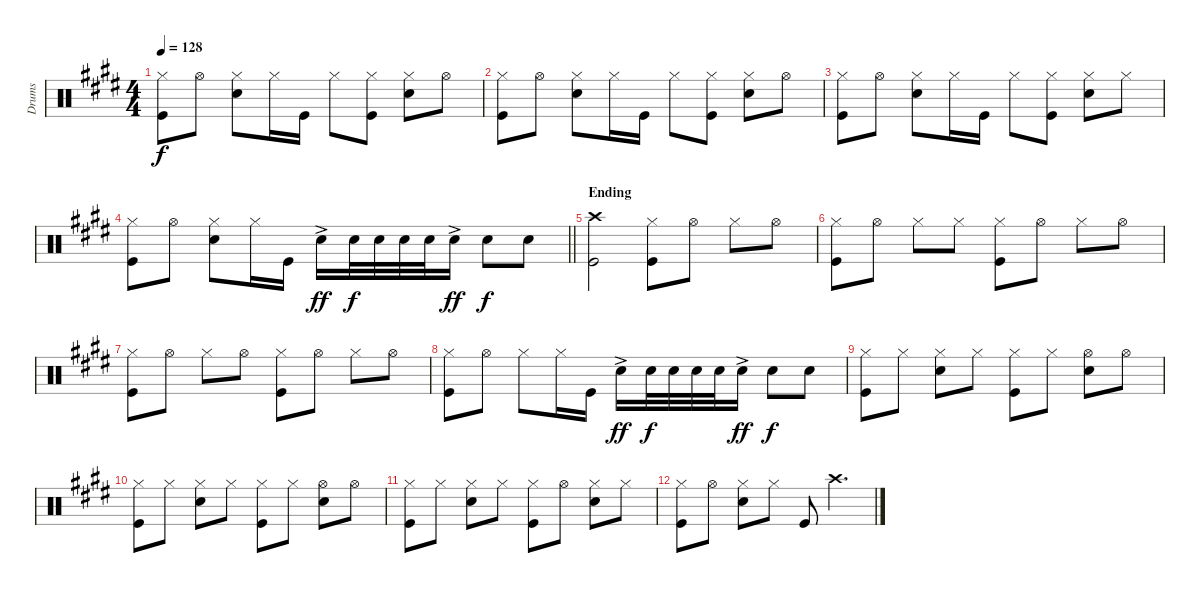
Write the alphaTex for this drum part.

\track ("Drums" "Drums") {instrument percussion}
\staff {score}
\articulation defaults
\ts (4 4)
\tempo 128
\clef neutral
\ks c#minor
("Hi-Hat (closed)" "Kick (hit)").8{dy f} "Hi-Hat (open)".8 ("Hi-Hat (closed)" "Snare (hit) 2").8 "Hi-Hat (closed)".16 "Kick (hit)".16 "Hi-Hat (closed)".8 ("Hi-Hat (closed)" "Kick (hit)").8 ("Hi-Hat (closed)" "Snare (hit) 2").8 "Hi-Hat (open)".8 |
("Hi-Hat (closed)" "Kick (hit)").8 "Hi-Hat (open)".8 ("Hi-Hat (closed)" "Snare (hit) 2").8 "Hi-Hat (closed)".16 "Kick (hit)".16 "Hi-Hat (closed)".8 ("Hi-Hat (closed)" "Kick (hit)").8 ("Hi-Hat (closed)" "Snare (hit) 2").8 "Hi-Hat (open)".8 |
("Kick (hit)" "Hi-Hat (closed)").8 "Hi-Hat (open)".8 ("Hi-Hat (closed)" "Snare (hit) 2").8 "Hi-Hat (closed)".16 "Kick (hit)".16 "Hi-Hat (closed)".8 ("Hi-Hat (closed)" "Kick (hit)").8 ("Hi-Hat (closed)" "Snare (hit) 2").8 "Hi-Hat (closed)".8 |
\barLineRight lightlight
("Hi-Hat (closed)" "Kick (hit)").8 "Hi-Hat (open)".8 ("Hi-Hat (closed)" "Snare (hit) 2").8 "Hi-Hat (closed)".16 "Kick (hit)".16 "Snare (hit) 2"{ac}.16{dy ff} "Snare (hit) 2".32{dy f} "Snare (hit) 2".32 "Snare (hit) 2".32 "Snare (hit) 2".32 "Snare (hit) 2"{ac}.16{dy ff} "Snare (hit) 2".8{dy f} "Snare (hit) 2".8 |
\section ("" "Ending")
("Crash high (hit)" "Kick (hit)").2 ("Kick (hit)" "Hi-Hat (closed)").8 "Hi-Hat (open)".8 "Hi-Hat (closed)".8 "Hi-Hat (open)".8 |
("Hi-Hat (closed)" "Kick (hit)").8 "Hi-Hat (open)".8 "Hi-Hat (closed)".8 "Hi-Hat (closed)".8 ("Hi-Hat (closed)" "Kick (hit)").8 "Hi-Hat (open)".8 "Hi-Hat (closed)".8 "Hi-Hat (open)".8 |
("Kick (hit)" "Hi-Hat (closed)").8 "Hi-Hat (open)".8 "Hi-Hat (closed)".8 "Hi-Hat (open)".8 ("Hi-Hat (closed)" "Kick (hit)").8 "Hi-Hat (open)".8 "Hi-Hat (closed)".8 "Hi-Hat (open)".8 |
("Hi-Hat (closed)" "Kick (hit)").8 "Hi-Hat (open)".8 "Hi-Hat (closed)".8 "Hi-Hat (closed)".16 "Kick (hit)".16 "Snare (hit) 2"{ac}.16{dy ff} "Snare (hit) 2".32{dy f} "Snare (hit) 2".32 "Snare (hit) 2".32 "Snare (hit) 2".32 "Snare (hit) 2"{ac}.16{dy ff} "Snare (hit) 2".8{dy f} "Snare (hit) 2".8 |
("Hi-Hat (closed)" "Kick (hit)").8 "Hi-Hat (closed)".8 ("Hi-Hat (closed)" "Snare (hit) 2").8 "Hi-Hat (closed)".8 ("Hi-Hat (closed)" "Kick (hit)").8 "Hi-Hat (closed)".8 ("Hi-Hat (open)" "Snare (hit) 2").8 "Hi-Hat (open)".8 |
("Hi-Hat (closed)" "Kick (hit)").8 "Hi-Hat (closed)".8 ("Hi-Hat (closed)" "Snare (hit) 2").8 "Hi-Hat (closed)".8 ("Hi-Hat (closed)" "Kick (hit)").8 "Hi-Hat (closed)".8 ("Hi-Hat (open)" "Snare (hit) 2").8 "Hi-Hat (open)".8 |
("Hi-Hat (closed)" "Kick (hit)").8 "Hi-Hat (closed)".8 ("Hi-Hat (closed)" "Snare (hit) 2").8 "Hi-Hat (closed)".8 ("Hi-Hat (closed)" "Kick (hit)").8 "Hi-Hat (open)".8 ("Hi-Hat (closed)" "Snare (hit) 2").8 "Hi-Hat (closed)".8 |
("Hi-Hat (closed)" "Kick (hit)").8 "Hi-Hat (open)".8 ("Hi-Hat (closed)" "Snare (hit) 2").8 "Hi-Hat (closed)".8 "Kick (hit)".8 "Crash high (hit)".4{d}
